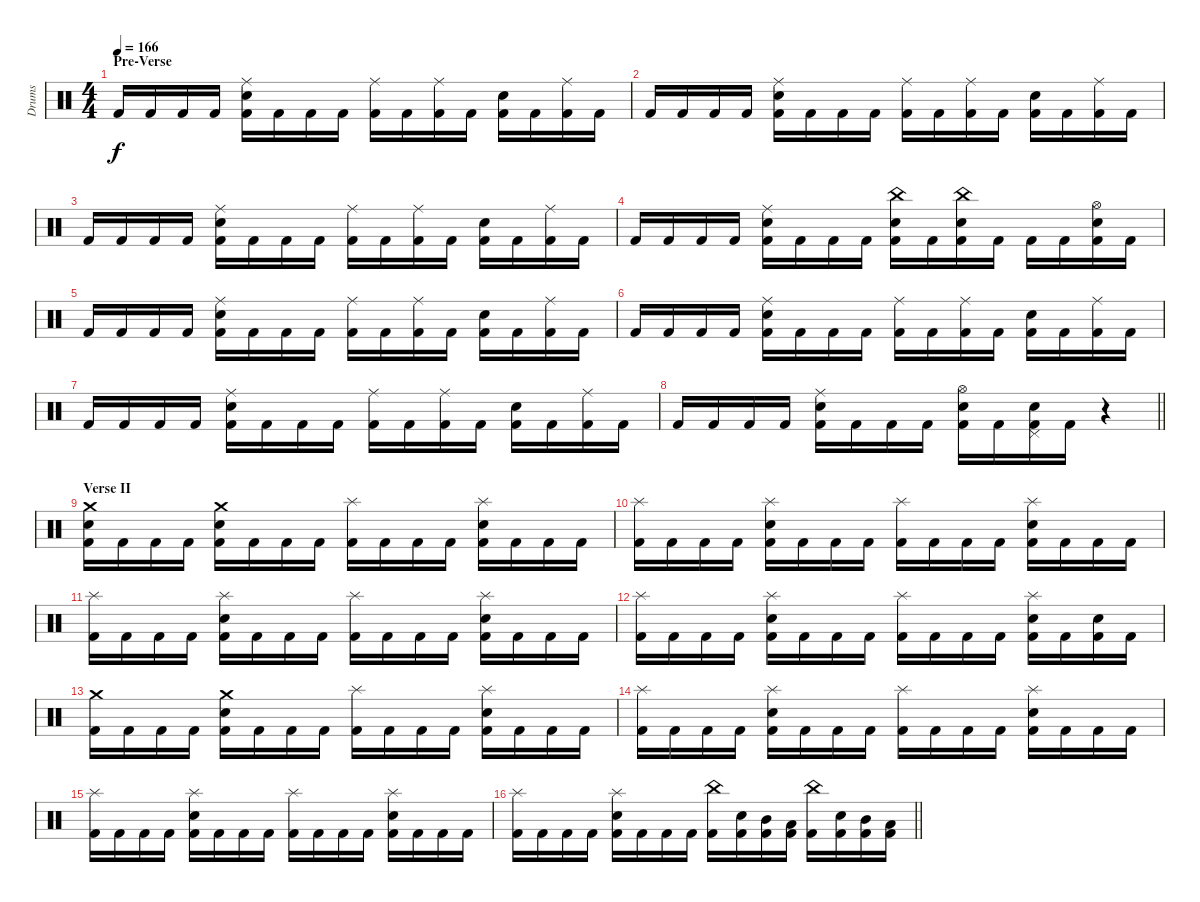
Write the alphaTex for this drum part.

\track ("Drums" "Drums") {instrument percussion}
\staff {score}
\articulation defaults
\ts (4 4)
\section ("" "Pre-Verse")
\tempo 166
\clef neutral
\ks c "Kick (hit) 2".16{dy f} "Kick (hit) 2".16 "Kick (hit) 2".16 "Kick (hit) 2".16
("Kick (hit) 2" "Snare (hit) 2" "Ride (middle)").16 "Kick (hit) 2".16 "Kick (hit) 2".16 "Kick (hit) 2".16 ("Kick (hit) 2" "Ride (middle)").16 "Kick (hit) 2".16 ("Kick (hit) 2" "Ride (middle)").16 "Kick (hit) 2".16 ("Kick (hit) 2" "Snare (hit) 2").16 "Kick (hit) 2".16 ("Kick (hit) 2" "Ride (middle)").16 "Kick (hit) 2".16 |
"Kick (hit) 2".16 "Kick (hit) 2".16 "Kick (hit) 2".16 "Kick (hit) 2".16 ("Kick (hit) 2" "Snare (hit) 2" "Ride (middle)").16 "Kick (hit) 2".16 "Kick (hit) 2".16 "Kick (hit) 2".16 ("Kick (hit) 2" "Ride (middle)").16 "Kick (hit) 2".16 ("Kick (hit) 2" "Ride (middle)").16 "Kick (hit) 2".16 ("Kick (hit) 2" "Snare (hit) 2").16 "Kick (hit) 2".16 ("Kick (hit) 2" "Ride (middle)").16 "Kick (hit) 2".16 |
"Kick (hit) 2".16 "Kick (hit) 2".16 "Kick (hit) 2".16 "Kick (hit) 2".16 ("Kick (hit) 2" "Snare (hit) 2" "Ride (middle)").16 "Kick (hit) 2".16 "Kick (hit) 2".16 "Kick (hit) 2".16 ("Kick (hit) 2" "Ride (middle)").16 "Kick (hit) 2".16 ("Kick (hit) 2" "Ride (middle)").16 "Kick (hit) 2".16 ("Kick (hit) 2" "Snare (hit) 2").16 "Kick (hit) 2".16 ("Kick (hit) 2" "Ride (middle)").16 "Kick (hit) 2".16 |
"Kick (hit) 2".16 "Kick (hit) 2".16 "Kick (hit) 2".16 "Kick (hit) 2".16 ("Kick (hit) 2" "Snare (hit) 2" "Ride (middle)").16 "Kick (hit) 2".16 "Kick (hit) 2".16 "Kick (hit) 2".16 ("Kick (hit) 2" "Snare (hit) 2" "China (hit)").16 "Kick (hit) 2".16 ("Kick (hit) 2" "Snare (hit) 2" "China (hit)").16 "Kick (hit) 2".16 "Kick (hit) 2".16 "Kick (hit) 2".16 ("Kick (hit) 2" "Snare (hit) 2" "Hi-Hat (open)").16 "Kick (hit) 2".16 |
"Kick (hit) 2".16 "Kick (hit) 2".16 "Kick (hit) 2".16 "Kick (hit) 2".16 ("Kick (hit) 2" "Snare (hit) 2" "Ride (middle)").16 "Kick (hit) 2".16 "Kick (hit) 2".16 "Kick (hit) 2".16 ("Kick (hit) 2" "Ride (middle)").16 "Kick (hit) 2".16 ("Kick (hit) 2" "Ride (middle)").16 "Kick (hit) 2".16 ("Kick (hit) 2" "Snare (hit) 2").16 "Kick (hit) 2".16 ("Kick (hit) 2" "Ride (middle)").16 "Kick (hit) 2".16 |
"Kick (hit) 2".16 "Kick (hit) 2".16 "Kick (hit) 2".16 "Kick (hit) 2".16 ("Kick (hit) 2" "Snare (hit) 2" "Ride (middle)").16 "Kick (hit) 2".16 "Kick (hit) 2".16 "Kick (hit) 2".16 ("Kick (hit) 2" "Ride (middle)").16 "Kick (hit) 2".16 ("Kick (hit) 2" "Ride (middle)").16 "Kick (hit) 2".16 ("Kick (hit) 2" "Snare (hit) 2").16 "Kick (hit) 2".16 ("Kick (hit) 2" "Ride (middle)").16 "Kick (hit) 2".16 |
"Kick (hit) 2".16 "Kick (hit) 2".16 "Kick (hit) 2".16 "Kick (hit) 2".16 ("Kick (hit) 2" "Snare (hit) 2" "Ride (middle)").16 "Kick (hit) 2".16 "Kick (hit) 2".16 "Kick (hit) 2".16 ("Kick (hit) 2" "Ride (middle)").16 "Kick (hit) 2".16 ("Kick (hit) 2" "Ride (middle)").16 "Kick (hit) 2".16 ("Kick (hit) 2" "Snare (hit) 2").16 "Kick (hit) 2".16 ("Kick (hit) 2" "Ride (middle)").16 "Kick (hit) 2".16 |
\barLineRight lightlight "Kick (hit) 2".16 "Kick (hit) 2".16 "Kick (hit) 2".16 "Kick (hit) 2".16
("Kick (hit) 2" "Snare (hit) 2" "Ride (middle)").16 "Kick (hit) 2".16 "Kick (hit) 2".16 "Kick (hit) 2".16 ("Kick (hit) 2" "Snare (hit) 2" "Hi-Hat (open)").16 "Kick (hit) 2".16 ("Kick (hit) 2" "Snare (hit) 2" "Pedal Hi-Hat (hit)").16 "Kick (hit) 2".16 r.4 |
\section ("" "Verse II")
("Kick (hit) 2" "Snare (hit) 2" "Crash medium (hit)").16 "Kick (hit) 2".16 "Kick (hit) 2".16 "Kick (hit) 2".16 ("Kick (hit) 2" "Snare (hit) 2" "Crash medium (hit)").16 "Kick (hit) 2".16 "Kick (hit) 2".16 "Kick (hit) 2".16 ("Kick (hit) 2" "Splash (hit)").16 "Kick (hit) 2".16 "Kick (hit) 2".16 "Kick (hit) 2".16 ("Kick (hit) 2" "Snare (hit) 2" "Splash (hit)").16 "Kick (hit) 2".16 "Kick (hit) 2".16 "Kick (hit) 2".16 |
("Kick (hit) 2" "Splash (hit)").16 "Kick (hit) 2".16 "Kick (hit) 2".16 "Kick (hit) 2".16 ("Kick (hit) 2" "Snare (hit) 2" "Splash (hit)").16 "Kick (hit) 2".16 "Kick (hit) 2".16 "Kick (hit) 2".16 ("Kick (hit) 2" "Splash (hit)").16 "Kick (hit) 2".16 "Kick (hit) 2".16 "Kick (hit) 2".16 ("Kick (hit) 2" "Snare (hit) 2" "Splash (hit)").16 "Kick (hit) 2".16 "Kick (hit) 2".16 "Kick (hit) 2".16 |
("Kick (hit) 2" "Splash (hit)").16 "Kick (hit) 2".16 "Kick (hit) 2".16 "Kick (hit) 2".16 ("Kick (hit) 2" "Snare (hit) 2" "Splash (hit)").16 "Kick (hit) 2".16 "Kick (hit) 2".16 "Kick (hit) 2".16 ("Kick (hit) 2" "Splash (hit)").16 "Kick (hit) 2".16 "Kick (hit) 2".16 "Kick (hit) 2".16 ("Kick (hit) 2" "Snare (hit) 2" "Splash (hit)").16 "Kick (hit) 2".16 "Kick (hit) 2".16 "Kick (hit) 2".16 |
("Kick (hit) 2" "Splash (hit)").16 "Kick (hit) 2".16 "Kick (hit) 2".16 "Kick (hit) 2".16 ("Kick (hit) 2" "Snare (hit) 2" "Splash (hit)").16 "Kick (hit) 2".16 "Kick (hit) 2".16 "Kick (hit) 2".16 ("Kick (hit) 2" "Splash (hit)").16 "Kick (hit) 2".16 "Kick (hit) 2".16 "Kick (hit) 2".16 ("Kick (hit) 2" "Snare (hit) 2" "Splash (hit)").16 "Kick (hit) 2".16 ("Kick (hit) 2" "Snare (hit) 2").16 "Kick (hit) 2".16 |
("Kick (hit) 2" "Crash medium (hit)").16 "Kick (hit) 2".16 "Kick (hit) 2".16 "Kick (hit) 2".16 ("Kick (hit) 2" "Snare (hit) 2" "Crash medium (hit)").16 "Kick (hit) 2".16 "Kick (hit) 2".16 "Kick (hit) 2".16 ("Kick (hit) 2" "Splash (hit)").16 "Kick (hit) 2".16 "Kick (hit) 2".16 "Kick (hit) 2".16 ("Kick (hit) 2" "Snare (hit) 2" "Splash (hit)").16 "Kick (hit) 2".16 "Kick (hit) 2".16 "Kick (hit) 2".16 |
("Kick (hit) 2" "Splash (hit)").16 "Kick (hit) 2".16 "Kick (hit) 2".16 "Kick (hit) 2".16 ("Kick (hit) 2" "Snare (hit) 2" "Splash (hit)").16 "Kick (hit) 2".16 "Kick (hit) 2".16 "Kick (hit) 2".16 ("Kick (hit) 2" "Splash (hit)").16 "Kick (hit) 2".16 "Kick (hit) 2".16 "Kick (hit) 2".16 ("Kick (hit) 2" "Snare (hit) 2" "Splash (hit)").16 "Kick (hit) 2".16 "Kick (hit) 2".16 "Kick (hit) 2".16 |
("Kick (hit) 2" "Splash (hit)").16 "Kick (hit) 2".16 "Kick (hit) 2".16 "Kick (hit) 2".16 ("Kick (hit) 2" "Snare (hit) 2" "Splash (hit)").16 "Kick (hit) 2".16 "Kick (hit) 2".16 "Kick (hit) 2".16 ("Kick (hit) 2" "Splash (hit)").16 "Kick (hit) 2".16 "Kick (hit) 2".16 "Kick (hit) 2".16 ("Kick (hit) 2" "Snare (hit) 2" "Splash (hit)").16 "Kick (hit) 2".16 "Kick (hit) 2".16 "Kick (hit) 2".16 |
\barLineRight lightlight
("Kick (hit) 2" "Splash (hit)").16 "Kick (hit) 2".16 "Kick (hit) 2".16 "Kick (hit) 2".16 ("Kick (hit) 2" "Snare (hit) 2" "Splash (hit)").16 "Kick (hit) 2".16 "Kick (hit) 2".16 "Kick (hit) 2".16 ("Kick (hit) 2" "China (hit)").16 ("Kick (hit) 2" "Snare (hit) 2").16 ("Kick (hit) 2" "Mid Tom (hit)").16 ("Kick (hit) 2" "Low Tom (hit)").16 ("Kick (hit) 2" "China (hit)").16 ("Kick (hit) 2" "Snare (hit) 2").16 ("Kick (hit) 2" "Mid Tom (hit)").16 ("Kick (hit) 2" "Low Tom (hit)").16
